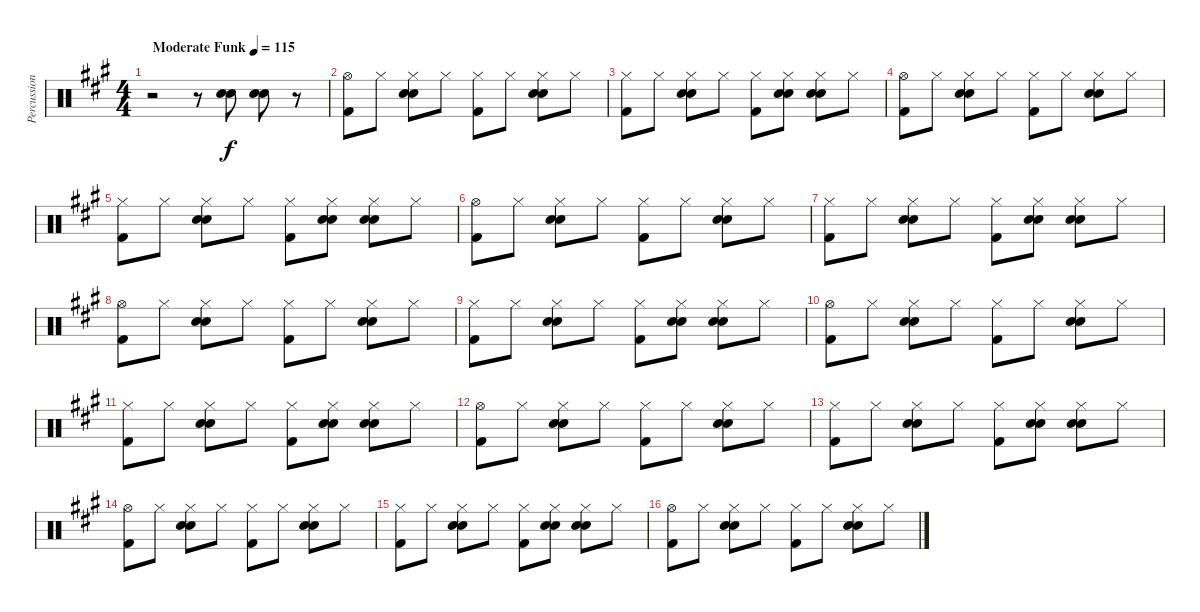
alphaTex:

\track ("Percussion" "Percussion") {instrument percussion}
\staff {score}
\articulation defaults
\ts (4 4)
\tempo (115 "Moderate Funk")
\clef neutral
\ks a
r.2{dy f} r.8 ("Hand Clap (hit)" "Electric Snare (hit)").8 ("Hand Clap (hit)" "Electric Snare (hit)").8 r.8 |
("Hi-Hat (open)" "Kick (hit) 2").8 "Hi-Hat (closed)".8 ("Hi-Hat (closed)" "Hand Clap (hit)" "Electric Snare (hit)").8 "Hi-Hat (closed)".8 ("Hi-Hat (closed)" "Kick (hit) 2").8 "Hi-Hat (closed)".8 ("Hi-Hat (closed)" "Hand Clap (hit)" "Electric Snare (hit)").8 "Hi-Hat (closed)".8 |
("Hi-Hat (closed)" "Kick (hit) 2").8 "Hi-Hat (closed)".8 ("Hi-Hat (closed)" "Hand Clap (hit)" "Electric Snare (hit)").8 "Hi-Hat (closed)".8 ("Hi-Hat (closed)" "Kick (hit) 2").8 ("Hi-Hat (closed)" "Hand Clap (hit)" "Electric Snare (hit)").8 ("Hi-Hat (closed)" "Hand Clap (hit)" "Electric Snare (hit)").8 "Hi-Hat (closed)".8 |
("Hi-Hat (open)" "Kick (hit) 2").8 "Hi-Hat (closed)".8 ("Hi-Hat (closed)" "Hand Clap (hit)" "Electric Snare (hit)").8 "Hi-Hat (closed)".8 ("Hi-Hat (closed)" "Kick (hit) 2").8 "Hi-Hat (closed)".8 ("Hi-Hat (closed)" "Hand Clap (hit)" "Electric Snare (hit)").8 "Hi-Hat (closed)".8 |
("Hi-Hat (closed)" "Kick (hit) 2").8 "Hi-Hat (closed)".8 ("Hi-Hat (closed)" "Hand Clap (hit)" "Electric Snare (hit)").8 "Hi-Hat (closed)".8 ("Hi-Hat (closed)" "Kick (hit) 2").8 ("Hi-Hat (closed)" "Hand Clap (hit)" "Electric Snare (hit)").8 ("Hi-Hat (closed)" "Hand Clap (hit)" "Electric Snare (hit)").8 "Hi-Hat (closed)".8 |
("Hi-Hat (open)" "Kick (hit) 2").8 "Hi-Hat (closed)".8 ("Hi-Hat (closed)" "Hand Clap (hit)" "Electric Snare (hit)").8 "Hi-Hat (closed)".8 ("Hi-Hat (closed)" "Kick (hit) 2").8 "Hi-Hat (closed)".8 ("Hi-Hat (closed)" "Hand Clap (hit)" "Electric Snare (hit)").8 "Hi-Hat (closed)".8 |
("Hi-Hat (closed)" "Kick (hit) 2").8 "Hi-Hat (closed)".8 ("Hi-Hat (closed)" "Hand Clap (hit)" "Electric Snare (hit)").8 "Hi-Hat (closed)".8 ("Hi-Hat (closed)" "Kick (hit) 2").8 ("Hi-Hat (closed)" "Hand Clap (hit)" "Electric Snare (hit)").8 ("Hi-Hat (closed)" "Hand Clap (hit)" "Electric Snare (hit)").8 "Hi-Hat (closed)".8 |
("Hi-Hat (open)" "Kick (hit) 2").8 "Hi-Hat (closed)".8 ("Hi-Hat (closed)" "Hand Clap (hit)" "Electric Snare (hit)").8 "Hi-Hat (closed)".8 ("Hi-Hat (closed)" "Kick (hit) 2").8 "Hi-Hat (closed)".8 ("Hi-Hat (closed)" "Hand Clap (hit)" "Electric Snare (hit)").8 "Hi-Hat (closed)".8 |
("Hi-Hat (closed)" "Kick (hit) 2").8 "Hi-Hat (closed)".8 ("Hi-Hat (closed)" "Hand Clap (hit)" "Electric Snare (hit)").8 "Hi-Hat (closed)".8 ("Hi-Hat (closed)" "Kick (hit) 2").8 ("Hi-Hat (closed)" "Hand Clap (hit)" "Electric Snare (hit)").8 ("Hi-Hat (closed)" "Hand Clap (hit)" "Electric Snare (hit)").8 "Hi-Hat (closed)".8 |
("Hi-Hat (open)" "Kick (hit) 2").8 "Hi-Hat (closed)".8 ("Hi-Hat (closed)" "Hand Clap (hit)" "Electric Snare (hit)").8 "Hi-Hat (closed)".8 ("Hi-Hat (closed)" "Kick (hit) 2").8 "Hi-Hat (closed)".8 ("Hi-Hat (closed)" "Hand Clap (hit)" "Electric Snare (hit)").8 "Hi-Hat (closed)".8 |
("Hi-Hat (closed)" "Kick (hit) 2").8 "Hi-Hat (closed)".8 ("Hi-Hat (closed)" "Hand Clap (hit)" "Electric Snare (hit)").8 "Hi-Hat (closed)".8 ("Hi-Hat (closed)" "Kick (hit) 2").8 ("Hi-Hat (closed)" "Hand Clap (hit)" "Electric Snare (hit)").8 ("Hi-Hat (closed)" "Hand Clap (hit)" "Electric Snare (hit)").8 "Hi-Hat (closed)".8 |
("Hi-Hat (open)" "Kick (hit) 2").8 "Hi-Hat (closed)".8 ("Hi-Hat (closed)" "Hand Clap (hit)" "Electric Snare (hit)").8 "Hi-Hat (closed)".8 ("Hi-Hat (closed)" "Kick (hit) 2").8 "Hi-Hat (closed)".8 ("Hi-Hat (closed)" "Hand Clap (hit)" "Electric Snare (hit)").8 "Hi-Hat (closed)".8 |
("Hi-Hat (closed)" "Kick (hit) 2").8 "Hi-Hat (closed)".8 ("Hi-Hat (closed)" "Hand Clap (hit)" "Electric Snare (hit)").8 "Hi-Hat (closed)".8 ("Hi-Hat (closed)" "Kick (hit) 2").8 ("Hi-Hat (closed)" "Hand Clap (hit)" "Electric Snare (hit)").8 ("Hi-Hat (closed)" "Hand Clap (hit)" "Electric Snare (hit)").8 "Hi-Hat (closed)".8 |
("Hi-Hat (open)" "Kick (hit) 2").8 "Hi-Hat (closed)".8 ("Hi-Hat (closed)" "Hand Clap (hit)" "Electric Snare (hit)").8 "Hi-Hat (closed)".8 ("Hi-Hat (closed)" "Kick (hit) 2").8 "Hi-Hat (closed)".8 ("Hi-Hat (closed)" "Hand Clap (hit)" "Electric Snare (hit)").8 "Hi-Hat (closed)".8 |
("Hi-Hat (closed)" "Kick (hit) 2").8 "Hi-Hat (closed)".8 ("Hi-Hat (closed)" "Hand Clap (hit)" "Electric Snare (hit)").8 "Hi-Hat (closed)".8 ("Hi-Hat (closed)" "Kick (hit) 2").8 ("Hi-Hat (closed)" "Hand Clap (hit)" "Electric Snare (hit)").8 ("Hi-Hat (closed)" "Hand Clap (hit)" "Electric Snare (hit)").8 "Hi-Hat (closed)".8 |
("Hi-Hat (open)" "Kick (hit) 2").8 "Hi-Hat (closed)".8 ("Hi-Hat (closed)" "Hand Clap (hit)" "Electric Snare (hit)").8 "Hi-Hat (closed)".8 ("Hi-Hat (closed)" "Kick (hit) 2").8 "Hi-Hat (closed)".8 ("Hi-Hat (closed)" "Hand Clap (hit)" "Electric Snare (hit)").8 "Hi-Hat (closed)".8
